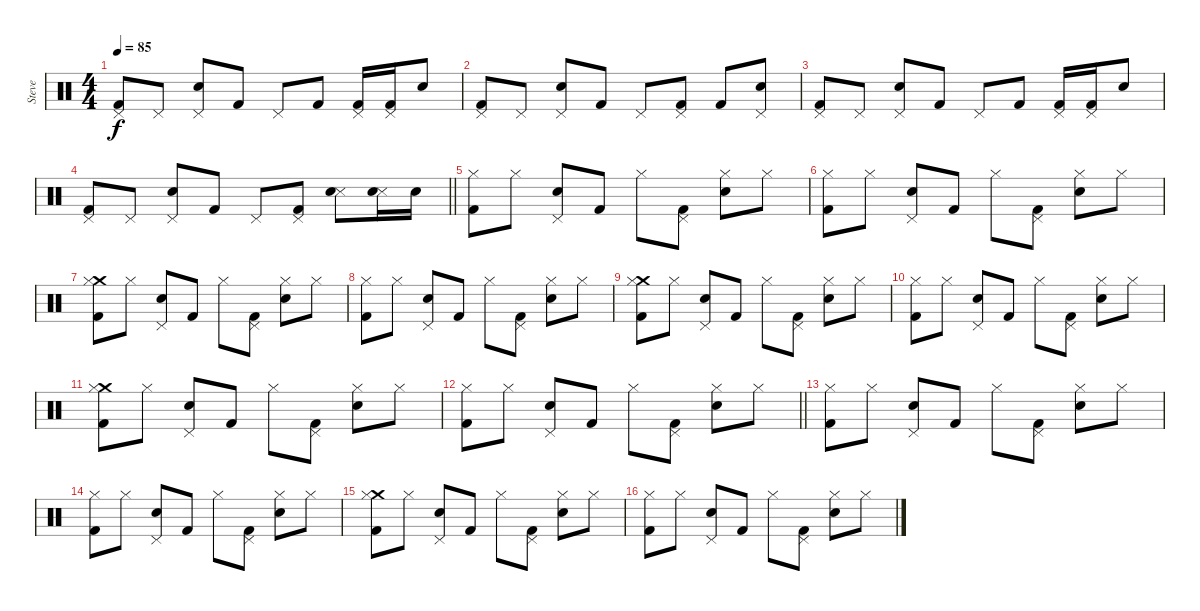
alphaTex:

\track ("Steve" "Steve") {instrument percussion}
\staff {score}
\articulation defaults
\ts (4 4)
\tempo 85
\clef neutral
\ks c
("Kick (hit) 2" "Pedal Hi-Hat (hit)").8{dy f} "Pedal Hi-Hat (hit)".8 ("Electric Snare (hit)" "Pedal Hi-Hat (hit)").8 "Kick (hit) 2".8 "Pedal Hi-Hat (hit)".8 "Kick (hit) 2".8 ("Kick (hit) 2" "Pedal Hi-Hat (hit)").16 ("Kick (hit) 2" "Pedal Hi-Hat (hit)").16 "Electric Snare (hit)".8 |
("Kick (hit) 2" "Pedal Hi-Hat (hit)").8 "Pedal Hi-Hat (hit)".8 ("Electric Snare (hit)" "Pedal Hi-Hat (hit)").8 "Kick (hit) 2".8 "Pedal Hi-Hat (hit)".8 ("Kick (hit) 2" "Pedal Hi-Hat (hit)").8 "Kick (hit) 2".8 ("Electric Snare (hit)" "Pedal Hi-Hat (hit)").8 |
("Kick (hit) 2" "Pedal Hi-Hat (hit)").8 "Pedal Hi-Hat (hit)".8 ("Electric Snare (hit)" "Pedal Hi-Hat (hit)").8 "Kick (hit) 2".8 "Pedal Hi-Hat (hit)".8 "Kick (hit) 2".8 ("Kick (hit) 2" "Pedal Hi-Hat (hit)").16 ("Kick (hit) 2" "Pedal Hi-Hat (hit)").16 "Electric Snare (hit)".8 |
\barLineRight lightlight
("Kick (hit) 2" "Pedal Hi-Hat (hit)").8 "Pedal Hi-Hat (hit)".8 ("Electric Snare (hit)" "Pedal Hi-Hat (hit)").8 "Kick (hit) 2".8 "Pedal Hi-Hat (hit)".8 ("Kick (hit) 2" "Pedal Hi-Hat (hit)").8 ("Snare (side stick) 3" "Electric Snare (hit)").8 ("Snare (side stick) 3" "Electric Snare (hit)").16 "Electric Snare (hit)".16 |
("Kick (hit) 2" "Hi-Hat (closed)").8 "Hi-Hat (closed)".8 ("Electric Snare (hit)" "Pedal Hi-Hat (hit)").8 "Kick (hit) 2".8 "Hi-Hat (closed)".8 ("Kick (hit) 2" "Pedal Hi-Hat (hit)").8 ("Electric Snare (hit)" "Hi-Hat (closed)").8 "Hi-Hat (closed)".8 |
("Kick (hit) 2" "Hi-Hat (closed)").8 "Hi-Hat (closed)".8 ("Electric Snare (hit)" "Pedal Hi-Hat (hit)").8 "Kick (hit) 2".8 "Hi-Hat (closed)".8 ("Kick (hit) 2" "Pedal Hi-Hat (hit)").8 ("Electric Snare (hit)" "Hi-Hat (closed)").8 "Hi-Hat (closed)".8 |
("Kick (hit) 2" "Crash medium (hit)" "Hi-Hat (closed)").8 "Hi-Hat (closed)".8 ("Electric Snare (hit)" "Pedal Hi-Hat (hit)").8 "Kick (hit) 2".8 "Hi-Hat (closed)".8 ("Kick (hit) 2" "Pedal Hi-Hat (hit)").8 ("Electric Snare (hit)" "Hi-Hat (closed)").8 "Hi-Hat (closed)".8 |
("Kick (hit) 2" "Hi-Hat (closed)").8 "Hi-Hat (closed)".8 ("Electric Snare (hit)" "Pedal Hi-Hat (hit)").8 "Kick (hit) 2".8 "Hi-Hat (closed)".8 ("Kick (hit) 2" "Pedal Hi-Hat (hit)").8 ("Electric Snare (hit)" "Hi-Hat (closed)").8 "Hi-Hat (closed)".8 |
("Kick (hit) 2" "Crash medium (hit)" "Hi-Hat (closed)").8 "Hi-Hat (closed)".8 ("Electric Snare (hit)" "Pedal Hi-Hat (hit)").8 "Kick (hit) 2".8 "Hi-Hat (closed)".8 ("Kick (hit) 2" "Pedal Hi-Hat (hit)").8 ("Electric Snare (hit)" "Hi-Hat (closed)").8 "Hi-Hat (closed)".8 |
("Kick (hit) 2" "Hi-Hat (closed)").8 "Hi-Hat (closed)".8 ("Electric Snare (hit)" "Pedal Hi-Hat (hit)").8 "Kick (hit) 2".8 "Hi-Hat (closed)".8 ("Kick (hit) 2" "Pedal Hi-Hat (hit)").8 ("Electric Snare (hit)" "Hi-Hat (closed)").8 "Hi-Hat (closed)".8 |
("Kick (hit) 2" "Crash medium (hit)" "Hi-Hat (closed)").8 "Hi-Hat (closed)".8 ("Electric Snare (hit)" "Pedal Hi-Hat (hit)").8 "Kick (hit) 2".8 "Hi-Hat (closed)".8 ("Kick (hit) 2" "Pedal Hi-Hat (hit)").8 ("Electric Snare (hit)" "Hi-Hat (closed)").8 "Hi-Hat (closed)".8 |
\barLineRight lightlight
("Kick (hit) 2" "Hi-Hat (closed)").8 "Hi-Hat (closed)".8 ("Electric Snare (hit)" "Pedal Hi-Hat (hit)").8 "Kick (hit) 2".8 "Hi-Hat (closed)".8 ("Kick (hit) 2" "Pedal Hi-Hat (hit)").8 ("Electric Snare (hit)" "Hi-Hat (closed)").8 "Hi-Hat (closed)".8 |
("Kick (hit) 2" "Hi-Hat (closed)").8 "Hi-Hat (closed)".8 ("Electric Snare (hit)" "Pedal Hi-Hat (hit)").8 "Kick (hit) 2".8 "Hi-Hat (closed)".8 ("Kick (hit) 2" "Pedal Hi-Hat (hit)").8 ("Electric Snare (hit)" "Hi-Hat (closed)").8 "Hi-Hat (closed)".8 |
("Kick (hit) 2" "Hi-Hat (closed)").8 "Hi-Hat (closed)".8 ("Electric Snare (hit)" "Pedal Hi-Hat (hit)").8 "Kick (hit) 2".8 "Hi-Hat (closed)".8 ("Kick (hit) 2" "Pedal Hi-Hat (hit)").8 ("Electric Snare (hit)" "Hi-Hat (closed)").8 "Hi-Hat (closed)".8 |
("Kick (hit) 2" "Crash medium (hit)" "Hi-Hat (closed)").8 "Hi-Hat (closed)".8 ("Electric Snare (hit)" "Pedal Hi-Hat (hit)").8 "Kick (hit) 2".8 "Hi-Hat (closed)".8 ("Kick (hit) 2" "Pedal Hi-Hat (hit)").8 ("Electric Snare (hit)" "Hi-Hat (closed)").8 "Hi-Hat (closed)".8 |
("Kick (hit) 2" "Hi-Hat (closed)").8 "Hi-Hat (closed)".8 ("Electric Snare (hit)" "Pedal Hi-Hat (hit)").8 "Kick (hit) 2".8 "Hi-Hat (closed)".8 ("Kick (hit) 2" "Pedal Hi-Hat (hit)").8 ("Electric Snare (hit)" "Hi-Hat (closed)").8 "Hi-Hat (closed)".8
